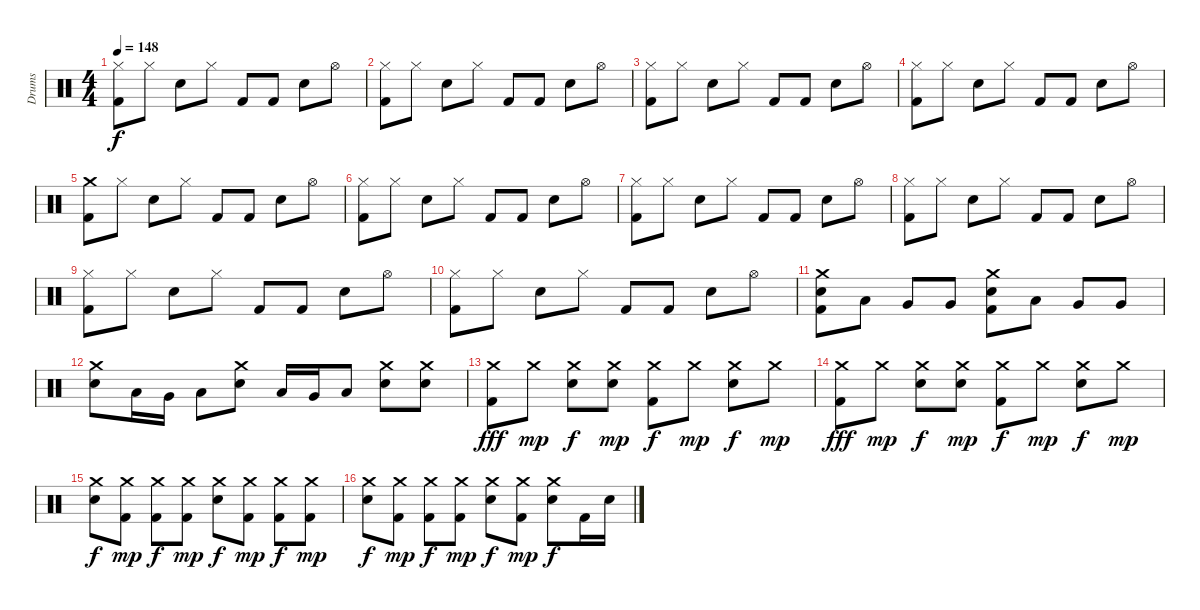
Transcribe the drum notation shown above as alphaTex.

\track ("Drums" "Drums") {instrument percussion}
\staff {score}
\articulation defaults
\ts (4 4)
\tempo 148
\clef neutral
\ks c
("Hi-Hat (closed)" "Kick (hit) 2").8{dy f} "Hi-Hat (closed)".8 "Snare (hit) 2".8 "Hi-Hat (closed)".8 "Kick (hit) 2".8 "Kick (hit) 2".8 "Snare (hit) 2".8 "Hi-Hat (open)".8 |
("Hi-Hat (closed)" "Kick (hit) 2").8 "Hi-Hat (closed)".8 "Snare (hit) 2".8 "Hi-Hat (closed)".8 "Kick (hit) 2".8 "Kick (hit) 2".8 "Snare (hit) 2".8 "Hi-Hat (open)".8 |
("Hi-Hat (closed)" "Kick (hit) 2").8 "Hi-Hat (closed)".8 "Snare (hit) 2".8 "Hi-Hat (closed)".8 "Kick (hit) 2".8 "Kick (hit) 2".8 "Snare (hit) 2".8 "Hi-Hat (open)".8 |
("Hi-Hat (closed)" "Kick (hit) 2").8 "Hi-Hat (closed)".8 "Snare (hit) 2".8 "Hi-Hat (closed)".8 "Kick (hit) 2".8 "Kick (hit) 2".8 "Snare (hit) 2".8 "Hi-Hat (open)".8 |
("Crash medium (hit)" "Kick (hit) 2").8 "Hi-Hat (closed)".8 "Snare (hit) 2".8 "Hi-Hat (closed)".8 "Kick (hit) 2".8 "Kick (hit) 2".8 "Snare (hit) 2".8 "Hi-Hat (open)".8 |
("Hi-Hat (closed)" "Kick (hit) 2").8 "Hi-Hat (closed)".8 "Snare (hit) 2".8 "Hi-Hat (closed)".8 "Kick (hit) 2".8 "Kick (hit) 2".8 "Snare (hit) 2".8 "Hi-Hat (open)".8 |
("Hi-Hat (closed)" "Kick (hit) 2").8 "Hi-Hat (closed)".8 "Snare (hit) 2".8 "Hi-Hat (closed)".8 "Kick (hit) 2".8 "Kick (hit) 2".8 "Snare (hit) 2".8 "Hi-Hat (open)".8 |
("Hi-Hat (closed)" "Kick (hit) 2").8 "Hi-Hat (closed)".8 "Snare (hit) 2".8 "Hi-Hat (closed)".8 "Kick (hit) 2".8 "Kick (hit) 2".8 "Snare (hit) 2".8 "Hi-Hat (open)".8 |
("Hi-Hat (closed)" "Kick (hit) 2").8 "Hi-Hat (closed)".8 "Snare (hit) 2".8 "Hi-Hat (closed)".8 "Kick (hit) 2".8 "Kick (hit) 2".8 "Snare (hit) 2".8 "Hi-Hat (open)".8 |
("Hi-Hat (closed)" "Kick (hit) 2").8 "Hi-Hat (closed)".8 "Snare (hit) 2".8 "Hi-Hat (closed)".8 "Kick (hit) 2".8 "Kick (hit) 2".8 "Snare (hit) 2".8 "Hi-Hat (open)".8 |
("Crash medium (hit)" "Snare (hit) 2" "Kick (hit) 2").8 "Low Tom (hit)".8 "Very Low Tom (hit)".8 "Very Low Tom (hit)".8 ("Crash medium (hit)" "Snare (hit) 2" "Kick (hit) 2").8 "Low Tom (hit)".8 "Very Low Tom (hit)".8 "Very Low Tom (hit)".8 |
("Crash medium (hit)" "Snare (hit) 2").8 "Low Tom (hit)".16 "Very Low Tom (hit)".16 "Low Floor Tom (hit)".8 ("Crash medium (hit)" "Snare (hit) 2").8 "Low Tom (hit)".16 "Very Low Tom (hit)".16 "Low Floor Tom (hit)".8 ("Crash medium (hit)" "Snare (hit) 2").8 ("Crash medium (hit)" "Snare (hit) 2").8 |
("Crash medium (hit)" "Kick (hit) 2").8{dy fff} "Crash medium (hit)".8{dy mp} ("Crash medium (hit)" "Snare (hit) 2").8{dy f} ("Crash medium (hit)" "Snare (hit) 2").8{dy mp} ("Crash medium (hit)" "Kick (hit) 2").8{dy f} "Crash medium (hit)".8{dy mp} ("Crash medium (hit)" "Snare (hit) 2").8{dy f} "Crash medium (hit)".8{dy mp} |
("Crash medium (hit)" "Kick (hit) 2").8{dy fff} "Crash medium (hit)".8{dy mp} ("Crash medium (hit)" "Snare (hit) 2").8{dy f} ("Crash medium (hit)" "Snare (hit) 2").8{dy mp} ("Crash medium (hit)" "Kick (hit) 2").8{dy f} "Crash medium (hit)".8{dy mp} ("Crash medium (hit)" "Snare (hit) 2").8{dy f} "Crash medium (hit)".8{dy mp} |
("Crash medium (hit)" "Snare (hit) 2").8{dy f} ("Crash medium (hit)" "Kick (hit) 2").8{dy mp} ("Crash medium (hit)" "Kick (hit) 2").8{dy f} ("Crash medium (hit)" "Kick (hit) 2").8{dy mp} ("Crash medium (hit)" "Snare (hit) 2").8{dy f} ("Crash medium (hit)" "Kick (hit) 2").8{dy mp} ("Crash medium (hit)" "Kick (hit) 2").8{dy f} ("Crash medium (hit)" "Kick (hit) 2").8{dy mp} |
("Crash medium (hit)" "Snare (hit) 2").8{dy f} ("Crash medium (hit)" "Kick (hit) 2").8{dy mp} ("Crash medium (hit)" "Kick (hit) 2").8{dy f} ("Crash medium (hit)" "Kick (hit) 2").8{dy mp} ("Crash medium (hit)" "Snare (hit) 2").8{dy f} ("Crash medium (hit)" "Kick (hit) 2").8{dy mp} ("Crash medium (hit)" "Snare (hit) 2").8{dy f} "Kick (hit) 2".16 "Snare (hit) 2".16
